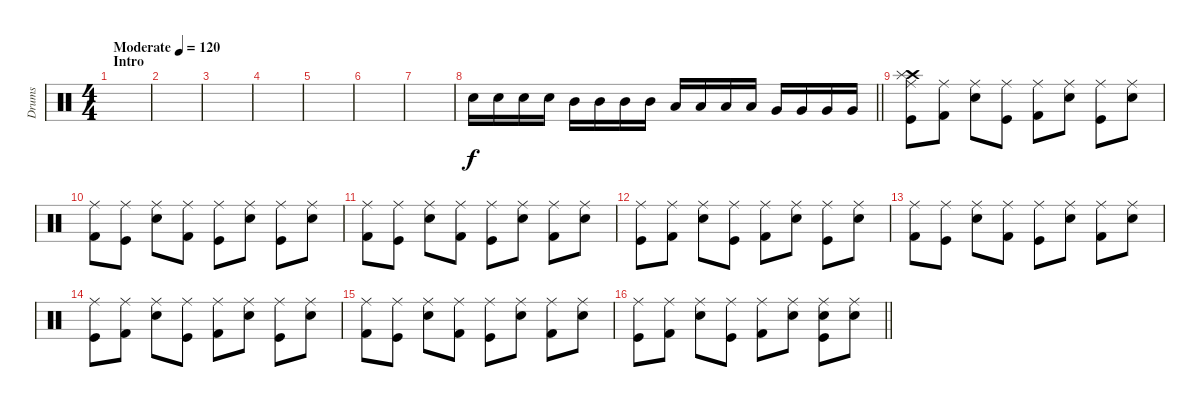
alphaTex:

\track ("Drums" "Drums") {instrument percussion}
\staff {score}
\articulation defaults
\ts (4 4)
\section ("" "Intro")
\tempo (120 "Moderate")
\clef neutral
\ks c
|
|
|
|
|
|
|
\barLineRight lightlight "Snare (hit) 2".16 "Snare (hit) 2".16 "Snare (hit) 2".16 "Snare (hit) 2".16 "Mid Tom (hit)".16 "Mid Tom (hit)".16 "Mid Tom (hit)".16 "Mid Tom (hit)".16 "Low Tom (hit)".16 "Low Tom (hit)".16 "Low Tom (hit)".16 "Low Tom (hit)".16 "Very Low Tom (hit)".16 "Very Low Tom (hit)".16 "Very Low Tom (hit)".16 "Very Low Tom (hit)".16
|
("Kick (hit)" "Crash high (hit)" "Splash (hit)" "Ride (middle)").8 ("Kick (hit) 2" "Ride (middle)").8 ("Snare (hit) 2" "Ride (middle)").8 ("Kick (hit)" "Ride (middle)").8 ("Kick (hit) 2" "Ride (middle)").8 ("Snare (hit) 2" "Ride (middle)").8 ("Kick (hit)" "Ride (middle)").8 ("Snare (hit) 2" "Ride (middle)").8 |
("Kick (hit) 2" "Ride (middle)").8 ("Kick (hit)" "Ride (middle)").8 ("Snare (hit) 2" "Ride (middle)").8 ("Kick (hit) 2" "Ride (middle)").8 ("Kick (hit)" "Ride (middle)").8 ("Snare (hit) 2" "Ride (middle)").8 ("Kick (hit)" "Ride (middle)").8 ("Snare (hit) 2" "Ride (middle)").8 |
("Kick (hit) 2" "Ride (middle)").8 ("Kick (hit)" "Ride (middle)").8 ("Snare (hit) 2" "Ride (middle)").8 ("Kick (hit) 2" "Ride (middle)").8 ("Kick (hit)" "Ride (middle)").8 ("Snare (hit) 2" "Ride (middle)").8 ("Kick (hit) 2" "Ride (middle)").8 ("Snare (hit) 2" "Ride (middle)").8 |
("Kick (hit)" "Ride (middle)").8 ("Kick (hit) 2" "Ride (middle)").8 ("Snare (hit) 2" "Ride (middle)").8 ("Kick (hit)" "Ride (middle)").8 ("Kick (hit) 2" "Ride (middle)").8 ("Snare (hit) 2" "Ride (middle)").8 ("Kick (hit)" "Ride (middle)").8 ("Snare (hit) 2" "Ride (middle)").8 |
("Kick (hit) 2" "Ride (middle)").8 ("Kick (hit)" "Ride (middle)").8 ("Snare (hit) 2" "Ride (middle)").8 ("Kick (hit) 2" "Ride (middle)").8 ("Kick (hit)" "Ride (middle)").8 ("Snare (hit) 2" "Ride (middle)").8 ("Kick (hit) 2" "Ride (middle)").8 ("Snare (hit) 2" "Ride (middle)").8 |
("Kick (hit)" "Ride (middle)").8 ("Kick (hit) 2" "Ride (middle)").8 ("Snare (hit) 2" "Ride (middle)").8 ("Kick (hit)" "Ride (middle)").8 ("Kick (hit) 2" "Ride (middle)").8 ("Snare (hit) 2" "Ride (middle)").8 ("Kick (hit)" "Ride (middle)").8 ("Snare (hit) 2" "Ride (middle)").8 |
("Kick (hit) 2" "Ride (middle)").8 ("Kick (hit)" "Ride (middle)").8 ("Snare (hit) 2" "Ride (middle)").8 ("Kick (hit) 2" "Ride (middle)").8 ("Kick (hit)" "Ride (middle)").8 ("Snare (hit) 2" "Ride (middle)").8 ("Kick (hit) 2" "Ride (middle)").8 ("Snare (hit) 2" "Ride (middle)").8 |
\barLineRight lightlight
("Kick (hit)" "Ride (middle)").8 ("Kick (hit) 2" "Ride (middle)").8 ("Snare (hit) 2" "Ride (middle)").8 ("Kick (hit)" "Ride (middle)").8 ("Kick (hit) 2" "Ride (middle)").8 ("Snare (hit) 2" "Ride (middle)").8 ("Kick (hit)" "Snare (hit) 2" "Ride (middle)").8 ("Snare (hit) 2" "Ride (middle)").8
